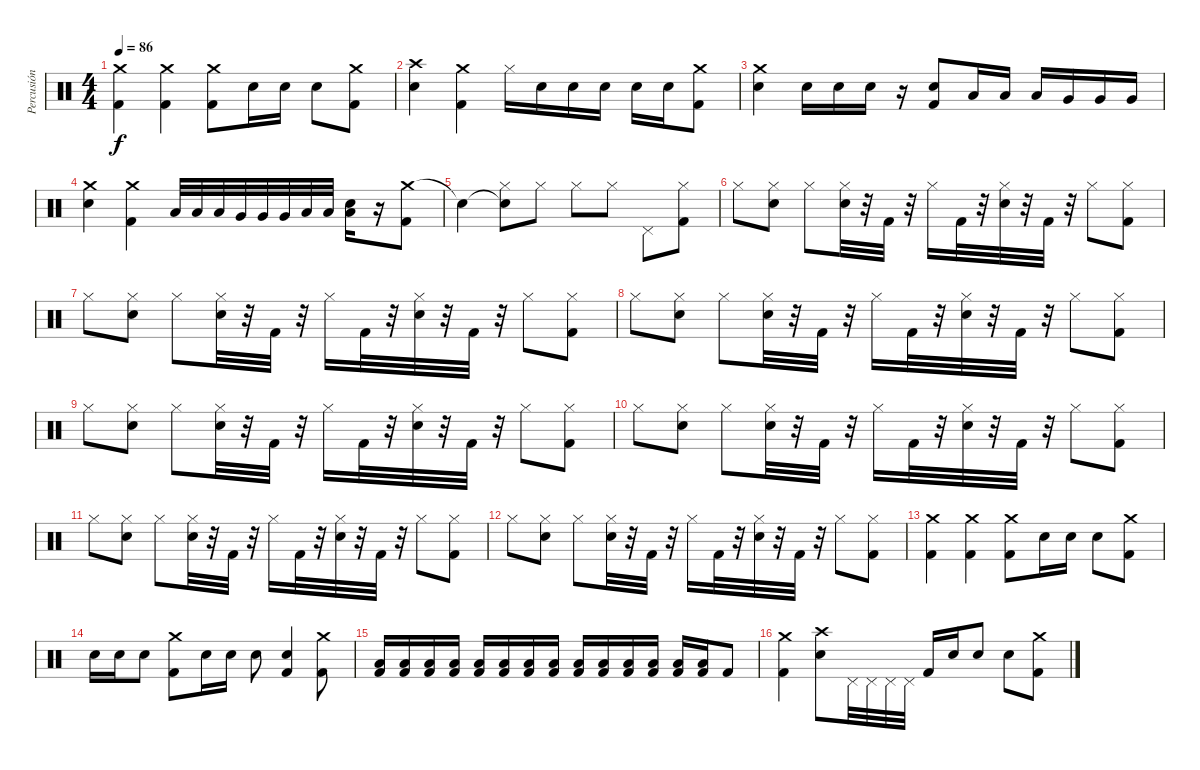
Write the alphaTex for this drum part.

\track ("Percusión" "Percusión") {instrument percussion}
\staff {score}
\articulation defaults
\ts (4 4)
\tempo 86
\clef neutral
\ks c
("Crash medium (hit)" "Kick (hit) 2").4{dy f} ("Crash medium (hit)" "Kick (hit) 2").4 ("Crash medium (hit)" "Kick (hit) 2").8 "Snare (hit) 2".16 "Snare (hit) 2".16 "Snare (hit) 2".8 ("Crash medium (hit)" "Kick (hit) 2").8 |
("Crash high (hit)" "Snare (hit) 2").4 ("Crash medium (hit)" "Kick (hit) 2").4 "Hi-Hat (closed)".16 "Snare (hit) 2".16 "Snare (hit) 2".16 "Snare (hit) 2".16 "Snare (hit) 2".16 "Snare (hit) 2".16 ("Crash medium (hit)" "Kick (hit) 2").8 |
("Crash medium (hit)" "Snare (hit) 2").4 "Snare (hit) 2".16 "Snare (hit) 2".16 "Snare (hit) 2".16 r.16 ("Kick (hit) 2" "Snare (hit) 2").8 "Low Floor Tom (hit)".16 "Low Floor Tom (hit)".16 "Low Floor Tom (hit)".16 "Very Low Tom (hit)".16 "Very Low Tom (hit)".16 "Very Low Tom (hit)".16 |
("Crash medium (hit)" "Snare (hit) 2").4 ("Crash medium (hit)" "Kick (hit) 2").4 "Low Tom (hit)".32 "Low Tom (hit)".32 "Low Tom (hit)".32 "Very Low Tom (hit)".32 "Very Low Tom (hit)".32 "Very Low Tom (hit)".32 "Low Floor Tom (hit)".32 "Low Floor Tom (hit)".32 ("Snare (hit) 2" "Low Floor Tom (hit)").16 r.16 ("Crash medium (hit)" "Kick (hit) 2").8 |
"Snare (hit)"{t}.4{volume 11} ("Snare (hit)"{t} "Hi-Hat (closed)").8 "Hi-Hat (closed)".8 "Hi-Hat (closed)".8 "Hi-Hat (closed)".8 "Pedal Hi-Hat (hit)".8 ("Hi-Hat (closed)" "Kick (hit) 2").8 |
"Hi-Hat (closed)".8 ("Hi-Hat (closed)" "Snare (hit) 2").8 "Hi-Hat (closed)".8 ("Hi-Hat (closed)" "Snare (hit) 2").32 r.32 "Kick (hit) 2".32 r.32 "Hi-Hat (closed)".16 "Kick (hit) 2".32 r.32 ("Hi-Hat (closed)" "Snare (hit) 2").32 r.32 "Kick (hit) 2".32 r.32 "Hi-Hat (closed)".8 ("Hi-Hat (closed)" "Kick (hit) 2").8 |
"Hi-Hat (closed)".8 ("Hi-Hat (closed)" "Snare (hit) 2").8 "Hi-Hat (closed)".8 ("Hi-Hat (closed)" "Snare (hit) 2").32 r.32 "Kick (hit) 2".32 r.32 "Hi-Hat (closed)".16 "Kick (hit) 2".32 r.32 ("Hi-Hat (closed)" "Snare (hit) 2").32 r.32 "Kick (hit) 2".32 r.32 "Hi-Hat (closed)".8 ("Hi-Hat (closed)" "Kick (hit) 2").8 |
"Hi-Hat (closed)".8 ("Hi-Hat (closed)" "Snare (hit) 2").8 "Hi-Hat (closed)".8 ("Hi-Hat (closed)" "Snare (hit) 2").32 r.32 "Kick (hit) 2".32 r.32 "Hi-Hat (closed)".16 "Kick (hit) 2".32 r.32 ("Hi-Hat (closed)" "Snare (hit) 2").32 r.32 "Kick (hit) 2".32 r.32 "Hi-Hat (closed)".8 ("Hi-Hat (closed)" "Kick (hit) 2").8 |
"Hi-Hat (closed)".8 ("Hi-Hat (closed)" "Snare (hit) 2").8 "Hi-Hat (closed)".8 ("Hi-Hat (closed)" "Snare (hit) 2").32 r.32 "Kick (hit) 2".32 r.32 "Hi-Hat (closed)".16 "Kick (hit) 2".32 r.32 ("Hi-Hat (closed)" "Snare (hit) 2").32 r.32 "Kick (hit) 2".32 r.32 "Hi-Hat (closed)".8 ("Hi-Hat (closed)" "Kick (hit) 2").8 |
"Hi-Hat (closed)".8 ("Hi-Hat (closed)" "Snare (hit) 2").8 "Hi-Hat (closed)".8 ("Hi-Hat (closed)" "Snare (hit) 2").32 r.32 "Kick (hit) 2".32 r.32 "Hi-Hat (closed)".16 "Kick (hit) 2".32 r.32 ("Hi-Hat (closed)" "Snare (hit) 2").32 r.32 "Kick (hit) 2".32 r.32 "Hi-Hat (closed)".8 ("Hi-Hat (closed)" "Kick (hit) 2").8 |
"Hi-Hat (closed)".8 ("Hi-Hat (closed)" "Snare (hit) 2").8 "Hi-Hat (closed)".8 ("Hi-Hat (closed)" "Snare (hit) 2").32 r.32 "Kick (hit) 2".32 r.32 "Hi-Hat (closed)".16 "Kick (hit) 2".32 r.32 ("Hi-Hat (closed)" "Snare (hit) 2").32 r.32 "Kick (hit) 2".32 r.32 "Hi-Hat (closed)".8 ("Hi-Hat (closed)" "Kick (hit) 2").8 |
"Hi-Hat (closed)".8 ("Hi-Hat (closed)" "Snare (hit) 2").8 "Hi-Hat (closed)".8 ("Hi-Hat (closed)" "Snare (hit) 2").32 r.32 "Kick (hit) 2".32 r.32 "Hi-Hat (closed)".16 "Kick (hit) 2".32 r.32 ("Hi-Hat (closed)" "Snare (hit) 2").32 r.32 "Kick (hit) 2".32 r.32 "Hi-Hat (closed)".8 ("Hi-Hat (closed)" "Kick (hit) 2").8 |
("Crash medium (hit)" "Kick (hit) 2").4{volume 16} ("Crash medium (hit)" "Kick (hit) 2").4 ("Crash medium (hit)" "Kick (hit) 2").8 "Snare (hit) 2".16 "Snare (hit) 2".16 "Snare (hit) 2".8 ("Crash medium (hit)" "Kick (hit) 2").8 |
"Snare (hit) 2".16 "Snare (hit) 2".16 "Snare (hit) 2".8 ("Crash medium (hit)" "Kick (hit) 2").8 "Snare (hit) 2".16 "Snare (hit) 2".16 "Snare (hit) 2".8 ("Snare (hit) 2" "Kick (hit) 2").4 ("Crash medium (hit)" "Kick (hit) 2").8 |
("Kick (hit) 2" "Low Floor Tom (hit)").16 ("Kick (hit) 2" "Low Floor Tom (hit)").16 ("Kick (hit) 2" "Low Floor Tom (hit)").16 ("Kick (hit) 2" "Low Floor Tom (hit)").16 ("Kick (hit) 2" "Low Floor Tom (hit)").16 ("Kick (hit) 2" "Low Floor Tom (hit)").16 ("Kick (hit) 2" "Low Floor Tom (hit)").16 ("Kick (hit) 2" "Low Floor Tom (hit)").16 ("Kick (hit) 2" "Low Floor Tom (hit)").16 ("Kick (hit) 2" "Low Floor Tom (hit)").16 ("Kick (hit) 2" "Low Floor Tom (hit)").16 ("Kick (hit) 2" "Low Floor Tom (hit)").16 ("Kick (hit) 2" "Low Floor Tom (hit)").16 ("Kick (hit) 2" "Low Floor Tom (hit)").16 "Kick (hit) 2".8 |
("Crash medium (hit)" "Kick (hit) 2").4 ("Crash high (hit)" "Snare (hit) 2").8 "Pedal Hi-Hat (hit)".32 "Pedal Hi-Hat (hit)".32 "Pedal Hi-Hat (hit)".32 "Pedal Hi-Hat (hit)".32 "Kick (hit) 2".16 "Snare (hit) 2".16 "Snare (hit) 2".8 "Snare (hit) 2".8 ("Crash medium (hit)" "Kick (hit) 2").8
